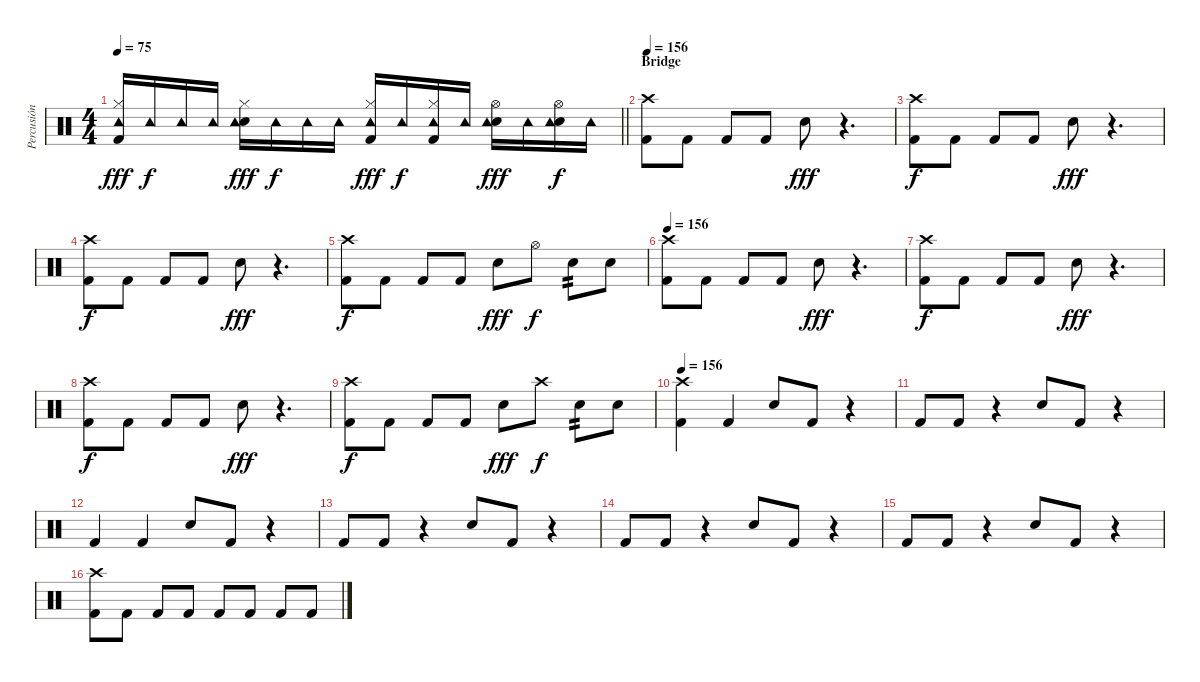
\track ("Percusión" "Percusión") {solo instrument percussion}
\staff {score}
\articulation defaults
\ts (4 4)
\tempo 75
\clef neutral
\barLineRight lightlight
\ks c
("Kick (hit) 2" "Hi-Hat (closed)" "Tambourine (hit)").16{dy fff} "Tambourine (hit)".16{dy f} "Tambourine (hit)".16 "Tambourine (hit)".16 ("Electric Snare (hit)" "Hi-Hat (closed)" "Tambourine (hit)").16{dy fff} "Tambourine (hit)".16{dy f} "Tambourine (hit)".16 "Tambourine (hit)".16 ("Kick (hit) 2" "Hi-Hat (closed)" "Tambourine (hit)").16{dy fff} "Tambourine (hit)".16{dy f} ("Kick (hit) 2" "Hi-Hat (closed)" "Tambourine (hit)").16 "Tambourine (hit)".16 ("Electric Snare (hit)" "Hi-Hat (open)" "Tambourine (hit)").16{dy fff} "Tambourine (hit)".16 ("Electric Snare (hit)" "Hi-Hat (open)" "Tambourine (hit)").16{dy f} "Tambourine (hit)".16 |
\section ("" "Bridge")
\tempo 156
("Kick (hit) 2" "Crash high (hit)").8 "Kick (hit) 2".8 "Kick (hit) 2".8 "Kick (hit) 2".8 "Electric Snare (hit)".8{dy fff} r.4{d} |
("Kick (hit) 2" "Crash high (hit)").8{dy f} "Kick (hit) 2".8 "Kick (hit) 2".8 "Kick (hit) 2".8 "Electric Snare (hit)".8{dy fff} r.4{d} |
("Kick (hit) 2" "Crash high (hit)").8{dy f} "Kick (hit) 2".8 "Kick (hit) 2".8 "Kick (hit) 2".8 "Electric Snare (hit)".8{dy fff} r.4{d} |
("Kick (hit) 2" "Crash high (hit)").8{dy f} "Kick (hit) 2".8 "Kick (hit) 2".8 "Kick (hit) 2".8 "Electric Snare (hit)".8{dy fff} "Hi-Hat (open)".8{dy f} "Electric Snare (hit)".8{tp 2} "Electric Snare (hit)".8 |
\tempo 156
("Kick (hit) 2" "Crash high (hit)").8 "Kick (hit) 2".8 "Kick (hit) 2".8 "Kick (hit) 2".8 "Electric Snare (hit)".8{dy fff} r.4{d} |
("Kick (hit) 2" "Crash high (hit)").8{dy f} "Kick (hit) 2".8 "Kick (hit) 2".8 "Kick (hit) 2".8 "Electric Snare (hit)".8{dy fff} r.4{d} |
("Kick (hit) 2" "Crash high (hit)").8{dy f} "Kick (hit) 2".8 "Kick (hit) 2".8 "Kick (hit) 2".8 "Electric Snare (hit)".8{dy fff} r.4{d} |
("Kick (hit) 2" "Crash high (hit)").8{dy f} "Kick (hit) 2".8 "Kick (hit) 2".8 "Kick (hit) 2".8 "Electric Snare (hit)".8{dy fff} "Crash high (hit)".8{dy f} "Electric Snare (hit)".8{tp 2} "Electric Snare (hit)".8 |
\tempo 156
("Kick (hit) 2" "Crash high (hit)").4 "Kick (hit) 2".4 "Electric Snare (hit)".8 "Kick (hit) 2".8 r.4 |
"Kick (hit) 2".8 "Kick (hit) 2".8 r.4 "Electric Snare (hit)".8 "Kick (hit) 2".8 r.4 |
"Kick (hit) 2".4 "Kick (hit) 2".4 "Electric Snare (hit)".8 "Kick (hit) 2".8 r.4 |
"Kick (hit) 2".8 "Kick (hit) 2".8 r.4 "Electric Snare (hit)".8 "Kick (hit) 2".8 r.4 |
"Kick (hit) 2".8 "Kick (hit) 2".8 r.4 "Electric Snare (hit)".8 "Kick (hit) 2".8 r.4 |
"Kick (hit) 2".8 "Kick (hit) 2".8 r.4 "Electric Snare (hit)".8 "Kick (hit) 2".8 r.4 |
("Crash high (hit)" "Kick (hit) 2").8 "Kick (hit) 2".8 "Kick (hit) 2".8 "Kick (hit) 2".8 "Kick (hit) 2".8 "Kick (hit) 2".8 "Kick (hit) 2".8 "Kick (hit) 2".8
